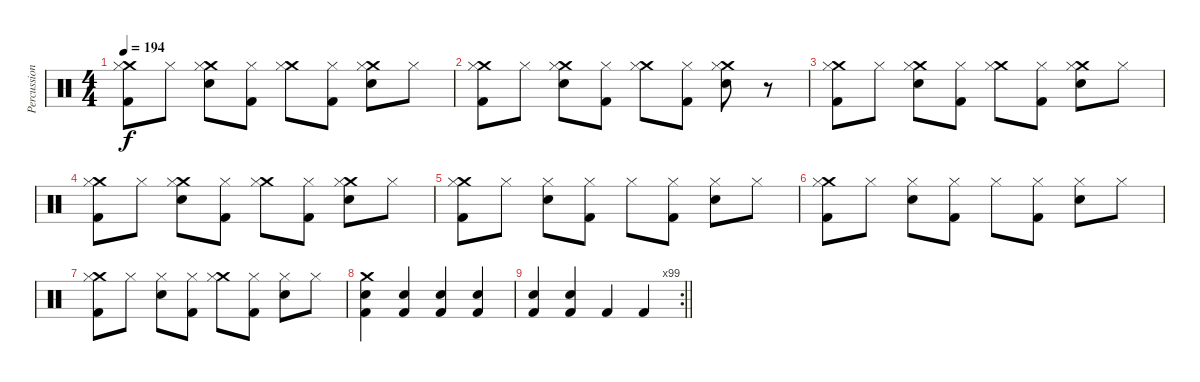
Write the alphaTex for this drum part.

\track ("Percussion" "Percussion") {instrument percussion}
\staff {score}
\articulation defaults
\ts (4 4)
\tempo 194
\clef neutral
\ks c
("Crash medium (hit)" "Kick (hit) 2" "Hi-Hat (closed)").8{dy f} "Hi-Hat (closed)".8 ("Crash medium (hit)" "Snare (hit) 2" "Hi-Hat (closed)").8 ("Kick (hit) 2" "Hi-Hat (closed)").8 ("Crash medium (hit)" "Hi-Hat (closed)").8 ("Kick (hit) 2" "Hi-Hat (closed)").8 ("Crash medium (hit)" "Snare (hit) 2" "Hi-Hat (closed)").8 "Hi-Hat (closed)".8 |
("Crash medium (hit)" "Kick (hit) 2" "Hi-Hat (closed)").8 "Hi-Hat (closed)".8 ("Crash medium (hit)" "Snare (hit) 2" "Hi-Hat (closed)").8 ("Kick (hit) 2" "Hi-Hat (closed)").8 ("Crash medium (hit)" "Hi-Hat (closed)").8 ("Kick (hit) 2" "Hi-Hat (closed)").8 ("Crash medium (hit)" "Snare (hit) 2" "Hi-Hat (closed)").8 r.8 |
("Crash medium (hit)" "Kick (hit) 2" "Hi-Hat (closed)").8 "Hi-Hat (closed)".8 ("Crash medium (hit)" "Snare (hit) 2" "Hi-Hat (closed)").8 ("Kick (hit) 2" "Hi-Hat (closed)").8 ("Crash medium (hit)" "Hi-Hat (closed)").8 ("Kick (hit) 2" "Hi-Hat (closed)").8 ("Crash medium (hit)" "Snare (hit) 2" "Hi-Hat (closed)").8 "Hi-Hat (closed)".8 |
("Crash medium (hit)" "Kick (hit) 2" "Hi-Hat (closed)").8 "Hi-Hat (closed)".8 ("Crash medium (hit)" "Snare (hit) 2" "Hi-Hat (closed)").8 ("Kick (hit) 2" "Hi-Hat (closed)").8 ("Crash medium (hit)" "Hi-Hat (closed)").8 ("Kick (hit) 2" "Hi-Hat (closed)").8 ("Crash medium (hit)" "Snare (hit) 2" "Hi-Hat (closed)").8 "Hi-Hat (closed)".8 |
("Crash medium (hit)" "Kick (hit) 2" "Hi-Hat (closed)").8 "Hi-Hat (closed)".8 ("Snare (hit) 2" "Hi-Hat (closed)").8 ("Kick (hit) 2" "Hi-Hat (closed)").8 "Hi-Hat (closed)".8 ("Kick (hit) 2" "Hi-Hat (closed)").8 ("Snare (hit) 2" "Hi-Hat (closed)").8 "Hi-Hat (closed)".8 |
("Crash medium (hit)" "Kick (hit) 2" "Hi-Hat (closed)").8 "Hi-Hat (closed)".8 ("Snare (hit) 2" "Hi-Hat (closed)").8 ("Kick (hit) 2" "Hi-Hat (closed)").8 "Hi-Hat (closed)".8 ("Kick (hit) 2" "Hi-Hat (closed)").8 ("Snare (hit) 2" "Hi-Hat (closed)").8 "Hi-Hat (closed)".8 |
("Crash medium (hit)" "Kick (hit) 2" "Hi-Hat (closed)").8 "Hi-Hat (closed)".8 ("Snare (hit) 2" "Hi-Hat (closed)").8 ("Kick (hit) 2" "Hi-Hat (closed)").8 ("Crash medium (hit)" "Hi-Hat (closed)").8 ("Kick (hit) 2" "Hi-Hat (closed)").8 ("Snare (hit) 2" "Hi-Hat (closed)").8 "Hi-Hat (closed)".8 |
("Crash medium (hit)" "Snare (hit) 2" "Kick (hit) 2").4 ("Snare (hit) 2" "Kick (hit) 2").4 ("Snare (hit) 2" "Kick (hit) 2").4 ("Snare (hit) 2" "Kick (hit) 2").4 |
\rc 99
\barLineRight lightlight
("Snare (hit) 2" "Kick (hit) 2").4 ("Snare (hit) 2" "Kick (hit) 2").4 "Kick (hit) 2".4 "Kick (hit) 2".4
